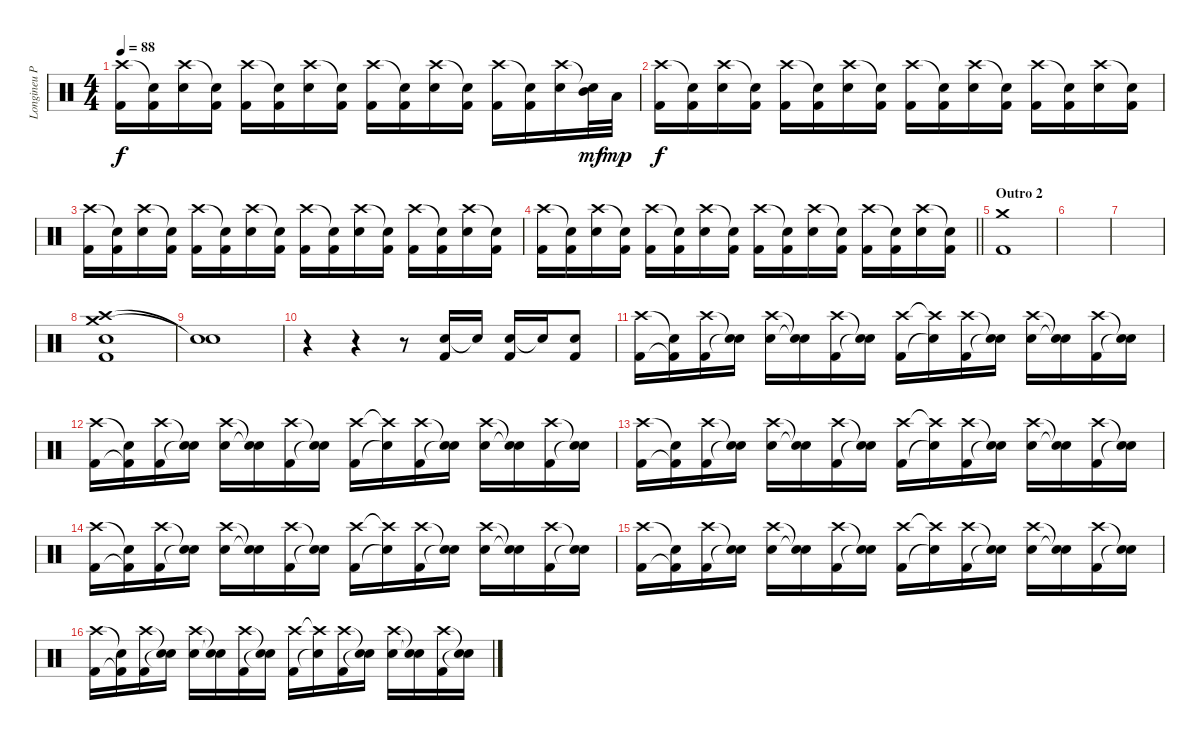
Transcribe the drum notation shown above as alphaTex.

\track ("Longineu Parsons ||| (Drums)" "Longineu P") {instrument percussion}
\staff {score}
\articulation defaults
\ts (4 4)
\tempo 88
\clef neutral
\ks c
("Crash high (hit)" "Kick (hit) 2").16{dy f} ("Snare (hit)"{t} "Kick (hit) 2").16 ("Crash high (hit)" "Electric Snare (hit)").16 ("Snare (hit)"{t} "Kick (hit) 2").16 ("Crash high (hit)" "Kick (hit) 2").16 ("Snare (hit)"{t} "Kick (hit) 2").16 ("Crash high (hit)" "Electric Snare (hit)").16 ("Snare (hit)"{t} "Kick (hit) 2").16 ("Crash high (hit)" "Kick (hit) 2").16 ("Snare (hit)"{t} "Kick (hit) 2").16 ("Crash high (hit)" "Electric Snare (hit)").16 ("Snare (hit)"{t} "Kick (hit) 2").16 ("Crash high (hit)" "Kick (hit) 2").16 ("Snare (hit)"{t} "Kick (hit) 2").16 ("Crash high (hit)" "Electric Snare (hit)").16 ("Snare (hit)"{t} "Mid Tom (hit)").32{dy mf} "Low Tom (hit)".32{dy mp} |
("Crash high (hit)" "Kick (hit) 2").16{dy f} ("Snare (hit)"{t} "Kick (hit) 2").16 ("Crash high (hit)" "Electric Snare (hit)").16 ("Snare (hit)"{t} "Kick (hit) 2").16 ("Crash high (hit)" "Kick (hit) 2").16 ("Snare (hit)"{t} "Kick (hit) 2").16 ("Crash high (hit)" "Electric Snare (hit)").16 ("Snare (hit)"{t} "Kick (hit) 2").16 ("Crash high (hit)" "Kick (hit) 2").16 ("Snare (hit)"{t} "Kick (hit) 2").16 ("Crash high (hit)" "Electric Snare (hit)").16 ("Snare (hit)"{t} "Kick (hit) 2").16 ("Crash high (hit)" "Kick (hit) 2").16 ("Snare (hit)"{t} "Kick (hit) 2").16 ("Crash high (hit)" "Electric Snare (hit)").16 ("Snare (hit)"{t} "Kick (hit) 2").16 |
("Crash high (hit)" "Kick (hit) 2").16 ("Snare (hit)"{t} "Kick (hit) 2").16 ("Crash high (hit)" "Electric Snare (hit)").16 ("Snare (hit)"{t} "Kick (hit) 2").16 ("Crash high (hit)" "Kick (hit) 2").16 ("Snare (hit)"{t} "Kick (hit) 2").16 ("Crash high (hit)" "Electric Snare (hit)").16 ("Snare (hit)"{t} "Kick (hit) 2").16 ("Crash high (hit)" "Kick (hit) 2").16 ("Snare (hit)"{t} "Kick (hit) 2").16 ("Crash high (hit)" "Electric Snare (hit)").16 ("Snare (hit)"{t} "Kick (hit) 2").16 ("Crash high (hit)" "Kick (hit) 2").16 ("Snare (hit)"{t} "Kick (hit) 2").16 ("Crash high (hit)" "Electric Snare (hit)").16 ("Snare (hit)"{t} "Kick (hit) 2").16 |
\barLineRight lightlight
("Crash high (hit)" "Kick (hit) 2").16 ("Snare (hit)"{t} "Kick (hit) 2").16 ("Crash high (hit)" "Electric Snare (hit)").16 ("Snare (hit)"{t} "Kick (hit) 2").16 ("Crash high (hit)" "Kick (hit) 2").16 ("Snare (hit)"{t} "Kick (hit) 2").16 ("Crash high (hit)" "Electric Snare (hit)").16 ("Snare (hit)"{t} "Kick (hit) 2").16 ("Crash high (hit)" "Kick (hit) 2").16 ("Snare (hit)"{t} "Kick (hit) 2").16 ("Crash high (hit)" "Electric Snare (hit)").16 ("Snare (hit)"{t} "Kick (hit) 2").16 ("Crash high (hit)" "Kick (hit) 2").16 ("Snare (hit)"{t} "Kick (hit) 2").16 ("Crash high (hit)" "Electric Snare (hit)").16 ("Snare (hit)"{t} "Kick (hit) 2").16 |
\section ("" "Outro 2 ")
("Crash medium (hit)" "Kick (hit) 2").1 |
|
|
("Crash high (hit)" "Crash medium (hit)" "Electric Snare (hit)" "Kick (hit) 2").1 |
("Snare (hit)"{t} "Snare (hit)"{t}).1 |
r.4 r.4 r.8 ("Electric Snare (hit)" "Kick (hit) 2").16 "Electric Snare (hit)"{t}.16 ("Electric Snare (hit)" "Kick (hit) 2").16 "Electric Snare (hit)"{t}.16 ("Electric Snare (hit)" "Kick (hit) 2").8 |
("Crash high (hit)" "Kick (hit) 2").16 ("Snare (hit)"{t} "Kick (hit) 2"{t}).16 ("Crash high (hit)" "Kick (hit) 2").16 ("Snare (hit)"{t} "Snare (hit)"{t}).16 ("Crash high (hit)" "Electric Snare (hit)").16 ("Snare (hit)"{t} "Snare (hit)"{t}).16 ("Crash high (hit)" "Kick (hit) 2").16 ("Snare (hit)"{t} "Snare (hit)"{t}).16 ("Crash high (hit)" "Kick (hit) 2").16 ("Crash high (hit)"{t} "Snare (hit)"{t}).16 ("Crash high (hit)" "Kick (hit) 2").16 ("Snare (hit)"{t} "Snare (hit)"{t}).16 ("Crash high (hit)" "Electric Snare (hit)").16 ("Snare (hit)"{t} "Snare (hit)"{t}).16 ("Crash high (hit)" "Kick (hit) 2").16 ("Snare (hit)"{t} "Snare (hit)"{t}).16 |
("Crash high (hit)" "Kick (hit) 2").16 ("Snare (hit)"{t} "Kick (hit) 2"{t}).16 ("Crash high (hit)" "Kick (hit) 2").16 ("Snare (hit)"{t} "Snare (hit)"{t}).16 ("Crash high (hit)" "Electric Snare (hit)").16 ("Snare (hit)"{t} "Snare (hit)"{t}).16 ("Crash high (hit)" "Kick (hit) 2").16 ("Snare (hit)"{t} "Snare (hit)"{t}).16 ("Crash high (hit)" "Kick (hit) 2").16 ("Crash high (hit)"{t} "Snare (hit)"{t}).16 ("Crash high (hit)" "Kick (hit) 2").16 ("Snare (hit)"{t} "Snare (hit)"{t}).16 ("Crash high (hit)" "Electric Snare (hit)").16 ("Snare (hit)"{t} "Snare (hit)"{t}).16 ("Crash high (hit)" "Kick (hit) 2").16 ("Snare (hit)"{t} "Snare (hit)"{t}).16 |
("Crash high (hit)" "Kick (hit) 2").16 ("Snare (hit)"{t} "Kick (hit) 2"{t}).16 ("Crash high (hit)" "Kick (hit) 2").16 ("Snare (hit)"{t} "Snare (hit)"{t}).16 ("Crash high (hit)" "Electric Snare (hit)").16 ("Snare (hit)"{t} "Snare (hit)"{t}).16 ("Crash high (hit)" "Kick (hit) 2").16 ("Snare (hit)"{t} "Snare (hit)"{t}).16 ("Crash high (hit)" "Kick (hit) 2").16 ("Crash high (hit)"{t} "Snare (hit)"{t}).16 ("Crash high (hit)" "Kick (hit) 2").16 ("Snare (hit)"{t} "Snare (hit)"{t}).16 ("Crash high (hit)" "Electric Snare (hit)").16 ("Snare (hit)"{t} "Snare (hit)"{t}).16 ("Crash high (hit)" "Kick (hit) 2").16 ("Snare (hit)"{t} "Snare (hit)"{t}).16 |
("Crash high (hit)" "Kick (hit) 2").16 ("Snare (hit)"{t} "Kick (hit) 2"{t}).16 ("Crash high (hit)" "Kick (hit) 2").16 ("Snare (hit)"{t} "Snare (hit)"{t}).16 ("Crash high (hit)" "Electric Snare (hit)").16 ("Snare (hit)"{t} "Snare (hit)"{t}).16 ("Crash high (hit)" "Kick (hit) 2").16 ("Snare (hit)"{t} "Snare (hit)"{t}).16 ("Crash high (hit)" "Kick (hit) 2").16 ("Crash high (hit)"{t} "Snare (hit)"{t}).16 ("Crash high (hit)" "Kick (hit) 2").16 ("Snare (hit)"{t} "Snare (hit)"{t}).16 ("Crash high (hit)" "Electric Snare (hit)").16 ("Snare (hit)"{t} "Snare (hit)"{t}).16 ("Crash high (hit)" "Kick (hit) 2").16 ("Snare (hit)"{t} "Snare (hit)"{t}).16 |
("Crash high (hit)" "Kick (hit) 2").16 ("Snare (hit)"{t} "Kick (hit) 2"{t}).16 ("Crash high (hit)" "Kick (hit) 2").16 ("Snare (hit)"{t} "Snare (hit)"{t}).16 ("Crash high (hit)" "Electric Snare (hit)").16 ("Snare (hit)"{t} "Snare (hit)"{t}).16 ("Crash high (hit)" "Kick (hit) 2").16 ("Snare (hit)"{t} "Snare (hit)"{t}).16 ("Crash high (hit)" "Kick (hit) 2").16 ("Crash high (hit)"{t} "Snare (hit)"{t}).16 ("Crash high (hit)" "Kick (hit) 2").16 ("Snare (hit)"{t} "Snare (hit)"{t}).16 ("Crash high (hit)" "Electric Snare (hit)").16 ("Snare (hit)"{t} "Snare (hit)"{t}).16 ("Crash high (hit)" "Kick (hit) 2").16 ("Snare (hit)"{t} "Snare (hit)"{t}).16 |
("Crash high (hit)" "Kick (hit) 2").16 ("Snare (hit)"{t} "Kick (hit) 2"{t}).16 ("Crash high (hit)" "Kick (hit) 2").16 ("Snare (hit)"{t} "Snare (hit)"{t}).16 ("Crash high (hit)" "Electric Snare (hit)").16 ("Snare (hit)"{t} "Snare (hit)"{t}).16 ("Crash high (hit)" "Kick (hit) 2").16 ("Snare (hit)"{t} "Snare (hit)"{t}).16 ("Crash high (hit)" "Kick (hit) 2").16 ("Crash high (hit)"{t} "Snare (hit)"{t}).16 ("Crash high (hit)" "Kick (hit) 2").16 ("Snare (hit)"{t} "Snare (hit)"{t}).16 ("Crash high (hit)" "Electric Snare (hit)").16 ("Snare (hit)"{t} "Snare (hit)"{t}).16 ("Crash high (hit)" "Kick (hit) 2").16 ("Snare (hit)"{t} "Snare (hit)"{t}).16
